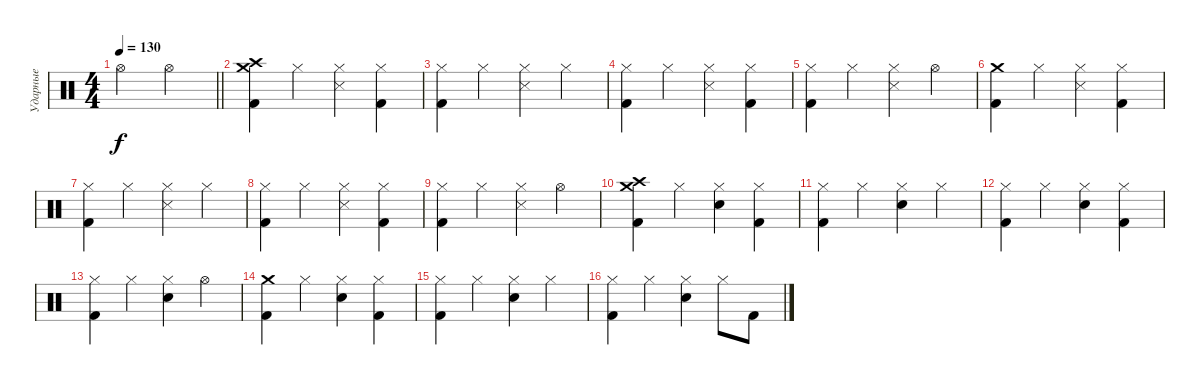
\track ("Ударные" "Ударные") {instrument percussion}
\staff
\articulation defaults
\ts (4 4)
\tempo 130
\clef neutral
\barLineRight lightlight
\ks c "Hi-Hat (open)".2{dy f} "Hi-Hat (open)".2
|
("Crash high (hit)" "Crash medium (hit)" "Kick (hit) 2").4 "Hi-Hat (closed)".4 ("Hi-Hat (closed)" "Snare (side stick) 3").4 ("Hi-Hat (closed)" "Kick (hit) 2").4 |
("Hi-Hat (closed)" "Kick (hit) 2").4 "Hi-Hat (closed)".4 ("Hi-Hat (closed)" "Snare (side stick) 3").4 "Hi-Hat (closed)".4 |
("Hi-Hat (closed)" "Kick (hit) 2").4 "Hi-Hat (closed)".4 ("Hi-Hat (closed)" "Snare (side stick) 3").4 ("Hi-Hat (closed)" "Kick (hit) 2").4 |
("Hi-Hat (closed)" "Kick (hit) 2").4 "Hi-Hat (closed)".4 ("Hi-Hat (closed)" "Snare (side stick) 3").4 "Hi-Hat (open)".4 |
("Crash medium (hit)" "Kick (hit) 2").4 "Hi-Hat (closed)".4 ("Hi-Hat (closed)" "Snare (side stick) 3").4 ("Hi-Hat (closed)" "Kick (hit) 2").4 |
("Hi-Hat (closed)" "Kick (hit) 2").4 "Hi-Hat (closed)".4 ("Hi-Hat (closed)" "Snare (side stick) 3").4 "Hi-Hat (closed)".4 |
("Hi-Hat (closed)" "Kick (hit) 2").4 "Hi-Hat (closed)".4 ("Hi-Hat (closed)" "Snare (side stick) 3").4 ("Hi-Hat (closed)" "Kick (hit) 2").4 |
("Hi-Hat (closed)" "Kick (hit) 2").4 "Hi-Hat (closed)".4 ("Hi-Hat (closed)" "Snare (side stick) 3").4 "Hi-Hat (open)".4 |
("Crash high (hit)" "Crash medium (hit)" "Kick (hit) 2").4 "Hi-Hat (closed)".4 ("Hi-Hat (closed)" "Electric Snare (hit)").4 ("Hi-Hat (closed)" "Kick (hit) 2").4 |
("Hi-Hat (closed)" "Kick (hit) 2").4 "Hi-Hat (closed)".4 ("Hi-Hat (closed)" "Electric Snare (hit)").4 "Hi-Hat (closed)".4 |
("Hi-Hat (closed)" "Kick (hit) 2").4 "Hi-Hat (closed)".4 ("Hi-Hat (closed)" "Electric Snare (hit)").4 ("Hi-Hat (closed)" "Kick (hit) 2").4 |
("Hi-Hat (closed)" "Kick (hit) 2").4 "Hi-Hat (closed)".4 ("Hi-Hat (closed)" "Electric Snare (hit)").4 "Hi-Hat (open)".4 |
("Crash medium (hit)" "Kick (hit) 2").4 "Hi-Hat (closed)".4 ("Hi-Hat (closed)" "Electric Snare (hit)").4 ("Hi-Hat (closed)" "Kick (hit) 2").4 |
("Hi-Hat (closed)" "Kick (hit) 2").4 "Hi-Hat (closed)".4 ("Hi-Hat (closed)" "Electric Snare (hit)").4 "Hi-Hat (closed)".4 |
("Hi-Hat (closed)" "Kick (hit) 2").4 "Hi-Hat (closed)".4 ("Hi-Hat (closed)" "Electric Snare (hit)").4 "Hi-Hat (closed)".8 "Kick (hit) 2".8
